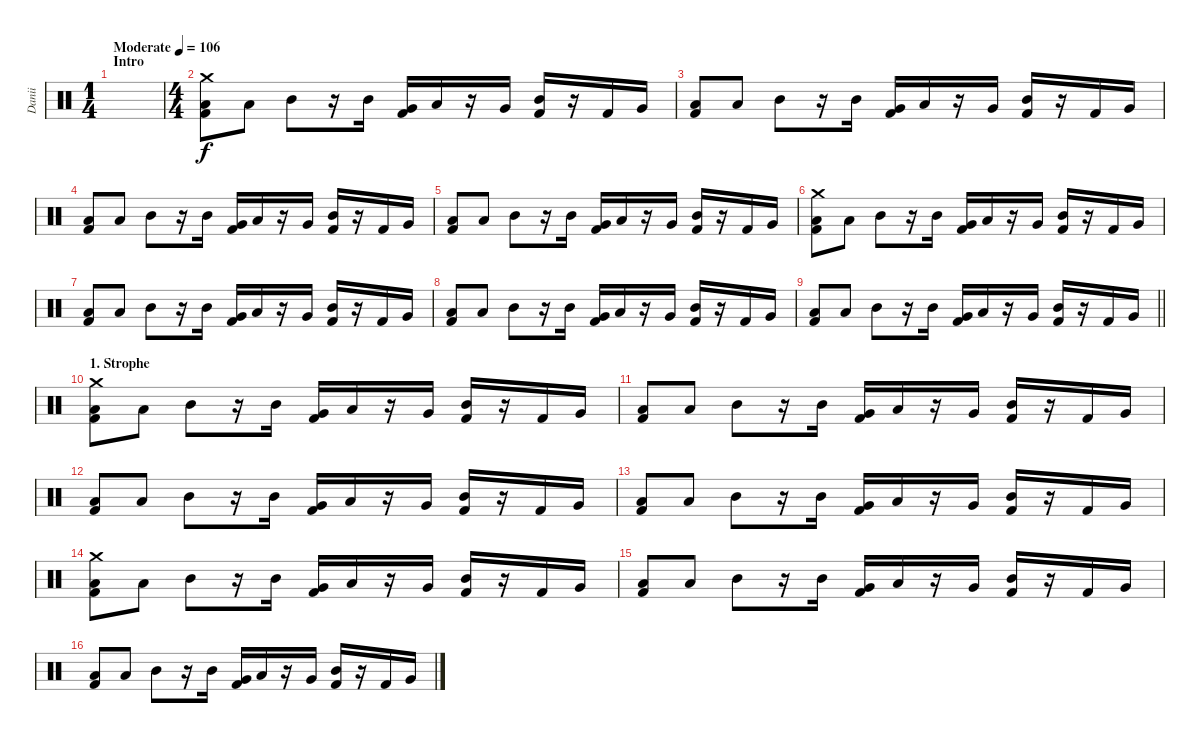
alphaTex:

\track ("Danii" "Danii") {instrument percussion}
\staff {score}
\articulation defaults
\ts (1 4)
\section ("" "Intro")
\tempo (106 "Moderate")
\clef neutral
\ks c
|
\ts (4 4)
("Low Floor Tom (hit)" "Kick (hit) 2" "Crash medium (hit)").8 "Low Floor Tom (hit)".8 "Mid Tom (hit)".8 r.16 "Mid Tom (hit)".16 ("Very Low Tom (hit)" "Kick (hit) 2").16 "Low Tom (hit)".16 r.16 "Very Low Tom (hit)".16 ("Mid Tom (hit)" "Kick (hit) 2").16 r.16 "Kick (hit) 2".16 "Very Low Tom (hit)".16 |
("Low Floor Tom (hit)" "Kick (hit) 2").8 "Low Floor Tom (hit)".8 "Mid Tom (hit)".8 r.16 "Mid Tom (hit)".16 ("Very Low Tom (hit)" "Kick (hit) 2").16 "Low Tom (hit)".16 r.16 "Very Low Tom (hit)".16 ("Mid Tom (hit)" "Kick (hit) 2").16 r.16 "Kick (hit) 2".16 "Very Low Tom (hit)".16 |
("Low Floor Tom (hit)" "Kick (hit) 2").8 "Low Floor Tom (hit)".8 "Mid Tom (hit)".8 r.16 "Mid Tom (hit)".16 ("Very Low Tom (hit)" "Kick (hit) 2").16 "Low Tom (hit)".16 r.16 "Very Low Tom (hit)".16 ("Mid Tom (hit)" "Kick (hit) 2").16 r.16 "Kick (hit) 2".16 "Very Low Tom (hit)".16 |
("Low Floor Tom (hit)" "Kick (hit) 2").8 "Low Floor Tom (hit)".8 "Mid Tom (hit)".8 r.16 "Mid Tom (hit)".16 ("Very Low Tom (hit)" "Kick (hit) 2").16 "Low Tom (hit)".16 r.16 "Very Low Tom (hit)".16 ("Mid Tom (hit)" "Kick (hit) 2").16 r.16 "Kick (hit) 2".16 "Very Low Tom (hit)".16 |
("Low Floor Tom (hit)" "Kick (hit) 2" "Crash medium (hit)").8 "Low Floor Tom (hit)".8 "Mid Tom (hit)".8 r.16 "Mid Tom (hit)".16 ("Very Low Tom (hit)" "Kick (hit) 2").16 "Low Tom (hit)".16 r.16 "Very Low Tom (hit)".16 ("Mid Tom (hit)" "Kick (hit) 2").16 r.16 "Kick (hit) 2".16 "Very Low Tom (hit)".16 |
("Low Floor Tom (hit)" "Kick (hit) 2").8 "Low Floor Tom (hit)".8 "Mid Tom (hit)".8 r.16 "Mid Tom (hit)".16 ("Very Low Tom (hit)" "Kick (hit) 2").16 "Low Tom (hit)".16 r.16 "Very Low Tom (hit)".16 ("Mid Tom (hit)" "Kick (hit) 2").16 r.16 "Kick (hit) 2".16 "Very Low Tom (hit)".16 |
("Low Floor Tom (hit)" "Kick (hit) 2").8 "Low Floor Tom (hit)".8 "Mid Tom (hit)".8 r.16 "Mid Tom (hit)".16 ("Very Low Tom (hit)" "Kick (hit) 2").16 "Low Tom (hit)".16 r.16 "Very Low Tom (hit)".16 ("Mid Tom (hit)" "Kick (hit) 2").16 r.16 "Kick (hit) 2".16 "Very Low Tom (hit)".16 |
\barLineRight lightlight
("Low Floor Tom (hit)" "Kick (hit) 2").8 "Low Floor Tom (hit)".8 "Mid Tom (hit)".8 r.16 "Mid Tom (hit)".16 ("Very Low Tom (hit)" "Kick (hit) 2").16 "Low Tom (hit)".16 r.16 "Very Low Tom (hit)".16 ("Mid Tom (hit)" "Kick (hit) 2").16 r.16 "Kick (hit) 2".16 "Very Low Tom (hit)".16 |
\section ("" "1. Strophe")
("Low Floor Tom (hit)" "Kick (hit) 2" "Crash medium (hit)").8 "Low Floor Tom (hit)".8 "Mid Tom (hit)".8 r.16 "Mid Tom (hit)".16 ("Very Low Tom (hit)" "Kick (hit) 2").16 "Low Tom (hit)".16 r.16 "Very Low Tom (hit)".16 ("Mid Tom (hit)" "Kick (hit) 2").16 r.16 "Kick (hit) 2".16 "Very Low Tom (hit)".16 |
("Low Floor Tom (hit)" "Kick (hit) 2").8 "Low Floor Tom (hit)".8 "Mid Tom (hit)".8 r.16 "Mid Tom (hit)".16 ("Very Low Tom (hit)" "Kick (hit) 2").16 "Low Tom (hit)".16 r.16 "Very Low Tom (hit)".16 ("Mid Tom (hit)" "Kick (hit) 2").16 r.16 "Kick (hit) 2".16 "Very Low Tom (hit)".16 |
("Low Floor Tom (hit)" "Kick (hit) 2").8 "Low Floor Tom (hit)".8 "Mid Tom (hit)".8 r.16 "Mid Tom (hit)".16 ("Very Low Tom (hit)" "Kick (hit) 2").16 "Low Tom (hit)".16 r.16 "Very Low Tom (hit)".16 ("Mid Tom (hit)" "Kick (hit) 2").16 r.16 "Kick (hit) 2".16 "Very Low Tom (hit)".16 |
("Low Floor Tom (hit)" "Kick (hit) 2").8 "Low Floor Tom (hit)".8 "Mid Tom (hit)".8 r.16 "Mid Tom (hit)".16 ("Very Low Tom (hit)" "Kick (hit) 2").16 "Low Tom (hit)".16 r.16 "Very Low Tom (hit)".16 ("Mid Tom (hit)" "Kick (hit) 2").16 r.16 "Kick (hit) 2".16 "Very Low Tom (hit)".16 |
("Low Floor Tom (hit)" "Kick (hit) 2" "Crash medium (hit)").8 "Low Floor Tom (hit)".8 "Mid Tom (hit)".8 r.16 "Mid Tom (hit)".16 ("Very Low Tom (hit)" "Kick (hit) 2").16 "Low Tom (hit)".16 r.16 "Very Low Tom (hit)".16 ("Mid Tom (hit)" "Kick (hit) 2").16 r.16 "Kick (hit) 2".16 "Very Low Tom (hit)".16 |
("Low Floor Tom (hit)" "Kick (hit) 2").8 "Low Floor Tom (hit)".8 "Mid Tom (hit)".8 r.16 "Mid Tom (hit)".16 ("Very Low Tom (hit)" "Kick (hit) 2").16 "Low Tom (hit)".16 r.16 "Very Low Tom (hit)".16 ("Mid Tom (hit)" "Kick (hit) 2").16 r.16 "Kick (hit) 2".16 "Very Low Tom (hit)".16 |
("Low Floor Tom (hit)" "Kick (hit) 2").8 "Low Floor Tom (hit)".8 "Mid Tom (hit)".8 r.16 "Mid Tom (hit)".16 ("Very Low Tom (hit)" "Kick (hit) 2").16 "Low Tom (hit)".16 r.16 "Very Low Tom (hit)".16 ("Mid Tom (hit)" "Kick (hit) 2").16 r.16 "Kick (hit) 2".16 "Very Low Tom (hit)".16
